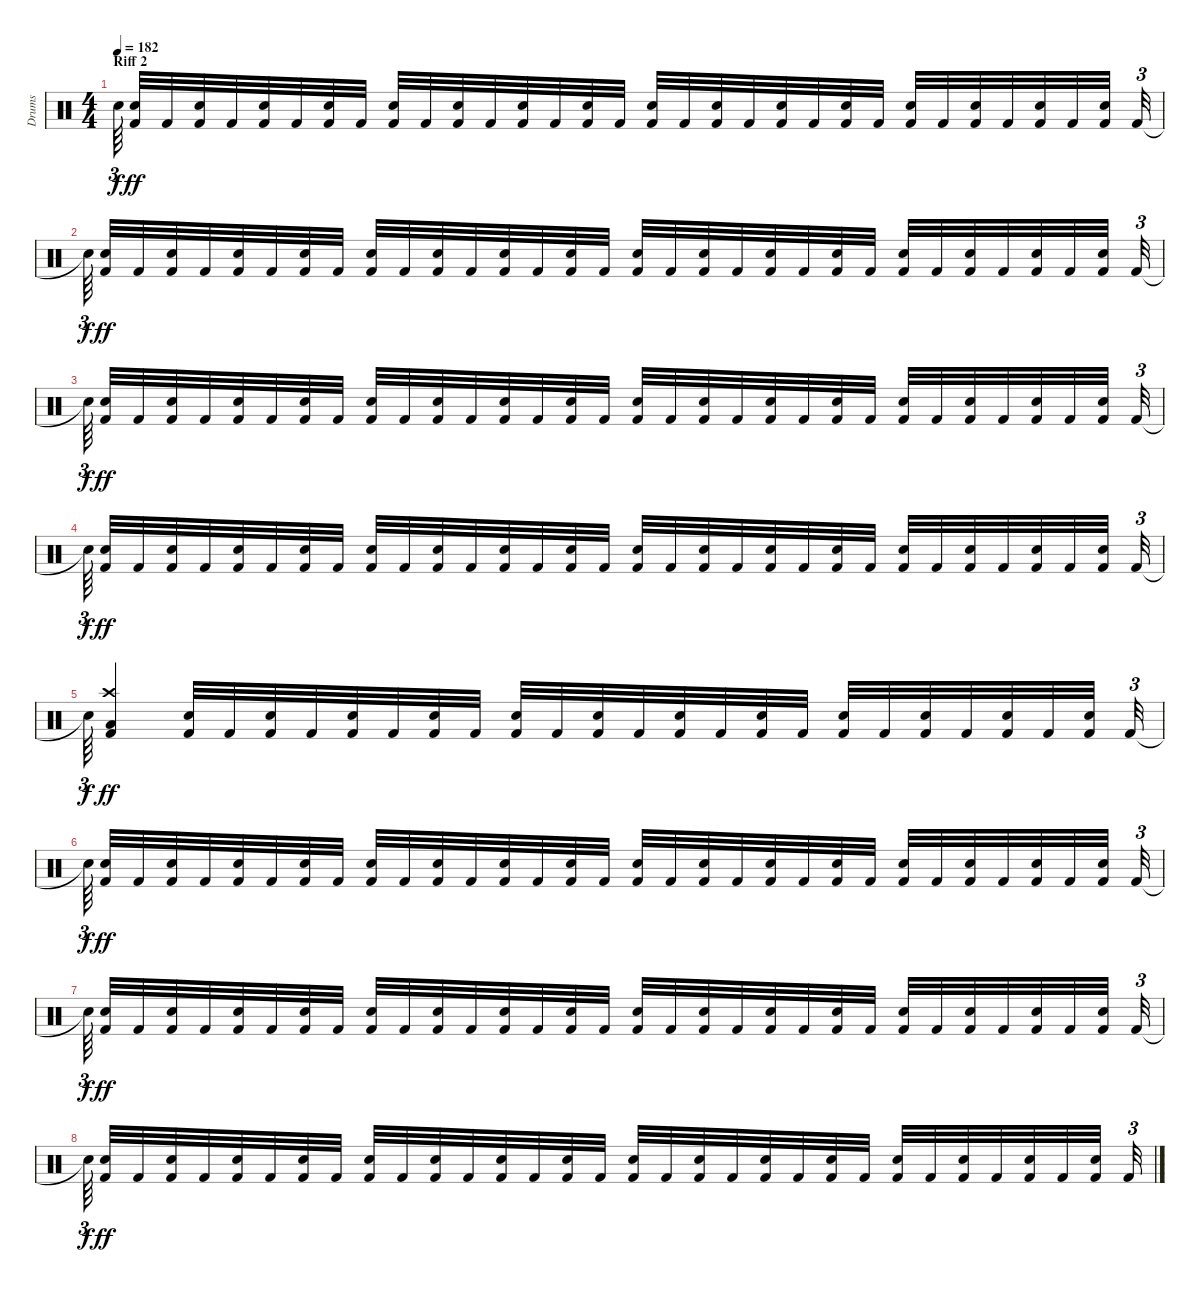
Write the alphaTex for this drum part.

\track ("Drums" "Drums") {instrument percussion}
\staff {score}
\articulation defaults
\ts (4 4)
\section ("" "Riff 2")
\tempo 182
\clef neutral
\ks c "Snare (hit)"{t}.64{tu (3 2) dy f beam splitsecondary}
("Kick (hit) 2" "Snare (hit) 2").32{dy ff} "Kick (hit) 2".32 ("Kick (hit) 2" "Snare (hit) 2").32 "Kick (hit) 2".32 ("Kick (hit) 2" "Snare (hit) 2").32 "Kick (hit) 2".32 ("Kick (hit) 2" "Snare (hit) 2").32 "Kick (hit) 2".32 ("Kick (hit) 2" "Snare (hit) 2").32 "Kick (hit) 2".32 ("Kick (hit) 2" "Snare (hit) 2").32 "Kick (hit) 2".32 ("Kick (hit) 2" "Snare (hit) 2").32 "Kick (hit) 2".32 ("Kick (hit) 2" "Snare (hit) 2").32 "Kick (hit) 2".32 ("Kick (hit) 2" "Snare (hit) 2").32 "Kick (hit) 2".32 ("Kick (hit) 2" "Snare (hit) 2").32 "Kick (hit) 2".32 ("Kick (hit) 2" "Snare (hit) 2").32 "Kick (hit) 2".32 ("Kick (hit) 2" "Snare (hit) 2").32 "Kick (hit) 2".32 ("Kick (hit) 2" "Snare (hit) 2").32 "Kick (hit) 2".32 ("Kick (hit) 2" "Snare (hit) 2").32 "Kick (hit) 2".32 ("Kick (hit) 2" "Snare (hit) 2").32 "Kick (hit) 2".32 ("Kick (hit) 2" "Snare (hit) 2").32{beam splitsecondary} "Kick (hit) 2".32{tu (3 2)} |
"Snare (hit)"{t}.64{tu (3 2) dy f beam splitsecondary} ("Kick (hit) 2" "Snare (hit) 2").32{dy ff} "Kick (hit) 2".32 ("Kick (hit) 2" "Snare (hit) 2").32 "Kick (hit) 2".32 ("Kick (hit) 2" "Snare (hit) 2").32 "Kick (hit) 2".32 ("Kick (hit) 2" "Snare (hit) 2").32 "Kick (hit) 2".32 ("Kick (hit) 2" "Snare (hit) 2").32 "Kick (hit) 2".32 ("Kick (hit) 2" "Snare (hit) 2").32 "Kick (hit) 2".32 ("Kick (hit) 2" "Snare (hit) 2").32 "Kick (hit) 2".32 ("Kick (hit) 2" "Snare (hit) 2").32 "Kick (hit) 2".32 ("Kick (hit) 2" "Snare (hit) 2").32 "Kick (hit) 2".32 ("Kick (hit) 2" "Snare (hit) 2").32 "Kick (hit) 2".32 ("Kick (hit) 2" "Snare (hit) 2").32 "Kick (hit) 2".32 ("Kick (hit) 2" "Snare (hit) 2").32 "Kick (hit) 2".32 ("Kick (hit) 2" "Snare (hit) 2").32 "Kick (hit) 2".32 ("Kick (hit) 2" "Snare (hit) 2").32 "Kick (hit) 2".32 ("Kick (hit) 2" "Snare (hit) 2").32 "Kick (hit) 2".32 ("Kick (hit) 2" "Snare (hit) 2").32{beam splitsecondary} "Kick (hit) 2".32{tu (3 2)} |
"Snare (hit)"{t}.64{tu (3 2) dy f beam splitsecondary} ("Kick (hit) 2" "Snare (hit) 2").32{dy ff} "Kick (hit) 2".32 ("Kick (hit) 2" "Snare (hit) 2").32 "Kick (hit) 2".32 ("Kick (hit) 2" "Snare (hit) 2").32 "Kick (hit) 2".32 ("Kick (hit) 2" "Snare (hit) 2").32 "Kick (hit) 2".32 ("Kick (hit) 2" "Snare (hit) 2").32 "Kick (hit) 2".32 ("Kick (hit) 2" "Snare (hit) 2").32 "Kick (hit) 2".32 ("Kick (hit) 2" "Snare (hit) 2").32 "Kick (hit) 2".32 ("Kick (hit) 2" "Snare (hit) 2").32 "Kick (hit) 2".32 ("Kick (hit) 2" "Snare (hit) 2").32 "Kick (hit) 2".32 ("Kick (hit) 2" "Snare (hit) 2").32 "Kick (hit) 2".32 ("Kick (hit) 2" "Snare (hit) 2").32 "Kick (hit) 2".32 ("Kick (hit) 2" "Snare (hit) 2").32 "Kick (hit) 2".32 ("Kick (hit) 2" "Snare (hit) 2").32 "Kick (hit) 2".32 ("Kick (hit) 2" "Snare (hit) 2").32 "Kick (hit) 2".32 ("Kick (hit) 2" "Snare (hit) 2").32 "Kick (hit) 2".32 ("Kick (hit) 2" "Snare (hit) 2").32{beam splitsecondary} "Kick (hit) 2".32{tu (3 2)} |
"Snare (hit)"{t}.64{tu (3 2) dy f beam splitsecondary} ("Kick (hit) 2" "Snare (hit) 2").32{dy ff} "Kick (hit) 2".32 ("Kick (hit) 2" "Snare (hit) 2").32 "Kick (hit) 2".32 ("Kick (hit) 2" "Snare (hit) 2").32 "Kick (hit) 2".32 ("Kick (hit) 2" "Snare (hit) 2").32 "Kick (hit) 2".32 ("Kick (hit) 2" "Snare (hit) 2").32 "Kick (hit) 2".32 ("Kick (hit) 2" "Snare (hit) 2").32 "Kick (hit) 2".32 ("Kick (hit) 2" "Snare (hit) 2").32 "Kick (hit) 2".32 ("Kick (hit) 2" "Snare (hit) 2").32 "Kick (hit) 2".32 ("Kick (hit) 2" "Snare (hit) 2").32 "Kick (hit) 2".32 ("Kick (hit) 2" "Snare (hit) 2").32 "Kick (hit) 2".32 ("Kick (hit) 2" "Snare (hit) 2").32 "Kick (hit) 2".32 ("Kick (hit) 2" "Snare (hit) 2").32 "Kick (hit) 2".32 ("Kick (hit) 2" "Snare (hit) 2").32 "Kick (hit) 2".32 ("Kick (hit) 2" "Snare (hit) 2").32 "Kick (hit) 2".32 ("Kick (hit) 2" "Snare (hit) 2").32 "Kick (hit) 2".32 ("Kick (hit) 2" "Snare (hit) 2").32{beam splitsecondary} "Kick (hit) 2".32{tu (3 2)} |
"Snare (hit)"{t}.64{tu (3 2) dy f} ("Crash high (hit)" "Kick (hit) 2" "Low Tom (hit)").4{dy ff} ("Kick (hit) 2" "Snare (hit) 2").32 "Kick (hit) 2".32 ("Kick (hit) 2" "Snare (hit) 2").32 "Kick (hit) 2".32 ("Kick (hit) 2" "Snare (hit) 2").32 "Kick (hit) 2".32 ("Kick (hit) 2" "Snare (hit) 2").32 "Kick (hit) 2".32 ("Kick (hit) 2" "Snare (hit) 2").32 "Kick (hit) 2".32 ("Kick (hit) 2" "Snare (hit) 2").32 "Kick (hit) 2".32 ("Kick (hit) 2" "Snare (hit) 2").32 "Kick (hit) 2".32 ("Kick (hit) 2" "Snare (hit) 2").32 "Kick (hit) 2".32 ("Kick (hit) 2" "Snare (hit) 2").32 "Kick (hit) 2".32 ("Kick (hit) 2" "Snare (hit) 2").32 "Kick (hit) 2".32 ("Kick (hit) 2" "Snare (hit) 2").32 "Kick (hit) 2".32 ("Kick (hit) 2" "Snare (hit) 2").32{beam splitsecondary} "Kick (hit) 2".32{tu (3 2)} |
"Snare (hit)"{t}.64{tu (3 2) dy f beam splitsecondary} ("Kick (hit) 2" "Snare (hit) 2").32{dy ff} "Kick (hit) 2".32 ("Kick (hit) 2" "Snare (hit) 2").32 "Kick (hit) 2".32 ("Kick (hit) 2" "Snare (hit) 2").32 "Kick (hit) 2".32 ("Kick (hit) 2" "Snare (hit) 2").32 "Kick (hit) 2".32 ("Kick (hit) 2" "Snare (hit) 2").32 "Kick (hit) 2".32 ("Kick (hit) 2" "Snare (hit) 2").32 "Kick (hit) 2".32 ("Kick (hit) 2" "Snare (hit) 2").32 "Kick (hit) 2".32 ("Kick (hit) 2" "Snare (hit) 2").32 "Kick (hit) 2".32 ("Kick (hit) 2" "Snare (hit) 2").32 "Kick (hit) 2".32 ("Kick (hit) 2" "Snare (hit) 2").32 "Kick (hit) 2".32 ("Kick (hit) 2" "Snare (hit) 2").32 "Kick (hit) 2".32 ("Kick (hit) 2" "Snare (hit) 2").32 "Kick (hit) 2".32 ("Kick (hit) 2" "Snare (hit) 2").32 "Kick (hit) 2".32 ("Kick (hit) 2" "Snare (hit) 2").32 "Kick (hit) 2".32 ("Kick (hit) 2" "Snare (hit) 2").32 "Kick (hit) 2".32 ("Kick (hit) 2" "Snare (hit) 2").32{beam splitsecondary} "Kick (hit) 2".32{tu (3 2)} |
"Snare (hit)"{t}.64{tu (3 2) dy f beam splitsecondary} ("Kick (hit) 2" "Snare (hit) 2").32{dy ff} "Kick (hit) 2".32 ("Kick (hit) 2" "Snare (hit) 2").32 "Kick (hit) 2".32 ("Kick (hit) 2" "Snare (hit) 2").32 "Kick (hit) 2".32 ("Kick (hit) 2" "Snare (hit) 2").32 "Kick (hit) 2".32 ("Kick (hit) 2" "Snare (hit) 2").32 "Kick (hit) 2".32 ("Kick (hit) 2" "Snare (hit) 2").32 "Kick (hit) 2".32 ("Kick (hit) 2" "Snare (hit) 2").32 "Kick (hit) 2".32 ("Kick (hit) 2" "Snare (hit) 2").32 "Kick (hit) 2".32 ("Kick (hit) 2" "Snare (hit) 2").32 "Kick (hit) 2".32 ("Kick (hit) 2" "Snare (hit) 2").32 "Kick (hit) 2".32 ("Kick (hit) 2" "Snare (hit) 2").32 "Kick (hit) 2".32 ("Kick (hit) 2" "Snare (hit) 2").32 "Kick (hit) 2".32 ("Kick (hit) 2" "Snare (hit) 2").32 "Kick (hit) 2".32 ("Kick (hit) 2" "Snare (hit) 2").32 "Kick (hit) 2".32 ("Kick (hit) 2" "Snare (hit) 2").32 "Kick (hit) 2".32 ("Kick (hit) 2" "Snare (hit) 2").32{beam splitsecondary} "Kick (hit) 2".32{tu (3 2)} |
"Snare (hit)"{t}.64{tu (3 2) dy f beam splitsecondary} ("Kick (hit) 2" "Snare (hit) 2").32{dy ff} "Kick (hit) 2".32 ("Kick (hit) 2" "Snare (hit) 2").32 "Kick (hit) 2".32 ("Kick (hit) 2" "Snare (hit) 2").32 "Kick (hit) 2".32 ("Kick (hit) 2" "Snare (hit) 2").32 "Kick (hit) 2".32 ("Kick (hit) 2" "Snare (hit) 2").32 "Kick (hit) 2".32 ("Kick (hit) 2" "Snare (hit) 2").32 "Kick (hit) 2".32 ("Kick (hit) 2" "Snare (hit) 2").32 "Kick (hit) 2".32 ("Kick (hit) 2" "Snare (hit) 2").32 "Kick (hit) 2".32 ("Kick (hit) 2" "Snare (hit) 2").32 "Kick (hit) 2".32 ("Kick (hit) 2" "Snare (hit) 2").32 "Kick (hit) 2".32 ("Kick (hit) 2" "Snare (hit) 2").32 "Kick (hit) 2".32 ("Kick (hit) 2" "Snare (hit) 2").32 "Kick (hit) 2".32 ("Kick (hit) 2" "Snare (hit) 2").32 "Kick (hit) 2".32 ("Kick (hit) 2" "Snare (hit) 2").32 "Kick (hit) 2".32 ("Kick (hit) 2" "Snare (hit) 2").32 "Kick (hit) 2".32 ("Kick (hit) 2" "Snare (hit) 2").32{beam splitsecondary} "Kick (hit) 2".32{tu (3 2)}
